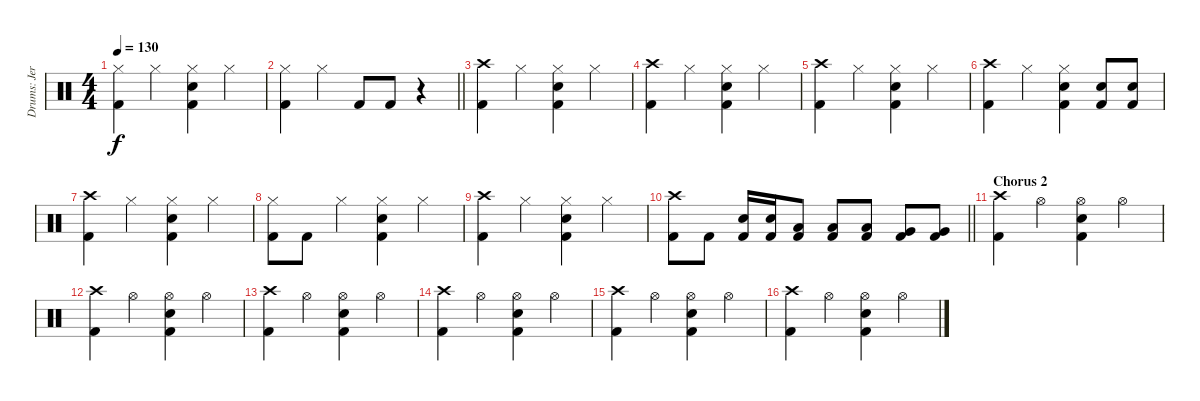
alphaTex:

\track ("Drums: Jere Luokkamäki" "Drums: Jer") {instrument percussion}
\staff {score}
\articulation defaults
\ts (4 4)
\tempo 130
\clef neutral
\ks aminor
("Hi-Hat (closed)" "Kick (hit) 2").4{dy f} "Hi-Hat (closed)".4 ("Hi-Hat (closed)" "Electric Snare (hit)" "Kick (hit) 2").4 "Hi-Hat (closed)".4 |
\barLineRight lightlight
("Hi-Hat (closed)" "Kick (hit) 2").4 "Hi-Hat (closed)".4 "Kick (hit) 2".8 "Kick (hit) 2".8 r.4 |
("Crash high (hit)" "Kick (hit) 2").4 "Hi-Hat (closed)".4 ("Hi-Hat (closed)" "Electric Snare (hit)" "Kick (hit) 2").4 "Hi-Hat (closed)".4 |
("Crash high (hit)" "Kick (hit) 2").4 "Hi-Hat (closed)".4 ("Hi-Hat (closed)" "Electric Snare (hit)" "Kick (hit) 2").4 "Hi-Hat (closed)".4 |
("Crash high (hit)" "Kick (hit) 2").4 "Hi-Hat (closed)".4 ("Hi-Hat (closed)" "Electric Snare (hit)" "Kick (hit) 2").4 "Hi-Hat (closed)".4 |
("Crash high (hit)" "Kick (hit) 2").4 "Hi-Hat (closed)".4 ("Hi-Hat (closed)" "Electric Snare (hit)" "Kick (hit) 2").4 ("Electric Snare (hit)" "Kick (hit) 2").8 ("Electric Snare (hit)" "Kick (hit) 2").8 |
("Crash high (hit)" "Kick (hit) 2").4 "Hi-Hat (closed)".4 ("Hi-Hat (closed)" "Electric Snare (hit)" "Kick (hit) 2").4 "Hi-Hat (closed)".4 |
("Hi-Hat (closed)" "Kick (hit) 2").8 "Kick (hit) 2".8 "Hi-Hat (closed)".4 ("Hi-Hat (closed)" "Electric Snare (hit)" "Kick (hit) 2").4 "Hi-Hat (closed)".4 |
("Crash high (hit)" "Kick (hit) 2").4 "Hi-Hat (closed)".4 ("Hi-Hat (closed)" "Electric Snare (hit)" "Kick (hit) 2").4 "Hi-Hat (closed)".4 |
\barLineRight lightlight
("Crash high (hit)" "Kick (hit) 2").8 "Kick (hit) 2".8 ("Electric Snare (hit)" "Kick (hit) 2").16 ("Electric Snare (hit)" "Kick (hit) 2").16 ("Low Tom (hit)" "Kick (hit) 2").8 ("Low Tom (hit)" "Kick (hit) 2").8 ("Low Tom (hit)" "Kick (hit) 2").8 ("Very Low Tom (hit)" "Kick (hit) 2").8 ("Very Low Tom (hit)" "Kick (hit) 2").8 |
\section ("" "Chorus 2")
("Crash high (hit)" "Kick (hit) 2").4 "Hi-Hat (open)".4 ("Hi-Hat (open)" "Electric Snare (hit)" "Kick (hit) 2").4 "Hi-Hat (open)".4 |
("Crash high (hit)" "Kick (hit) 2").4 "Hi-Hat (open)".4 ("Hi-Hat (open)" "Electric Snare (hit)" "Kick (hit) 2").4 "Hi-Hat (open)".4 |
("Crash high (hit)" "Kick (hit) 2").4 "Hi-Hat (open)".4 ("Hi-Hat (open)" "Electric Snare (hit)" "Kick (hit) 2").4 "Hi-Hat (open)".4 |
("Crash high (hit)" "Kick (hit) 2").4 "Hi-Hat (open)".4 ("Hi-Hat (open)" "Electric Snare (hit)" "Kick (hit) 2").4 "Hi-Hat (open)".4 |
("Crash high (hit)" "Kick (hit) 2").4 "Hi-Hat (open)".4 ("Hi-Hat (open)" "Electric Snare (hit)" "Kick (hit) 2").4 "Hi-Hat (open)".4 |
("Crash high (hit)" "Kick (hit) 2").4 "Hi-Hat (open)".4 ("Hi-Hat (open)" "Electric Snare (hit)" "Kick (hit) 2").4 "Hi-Hat (open)".4
